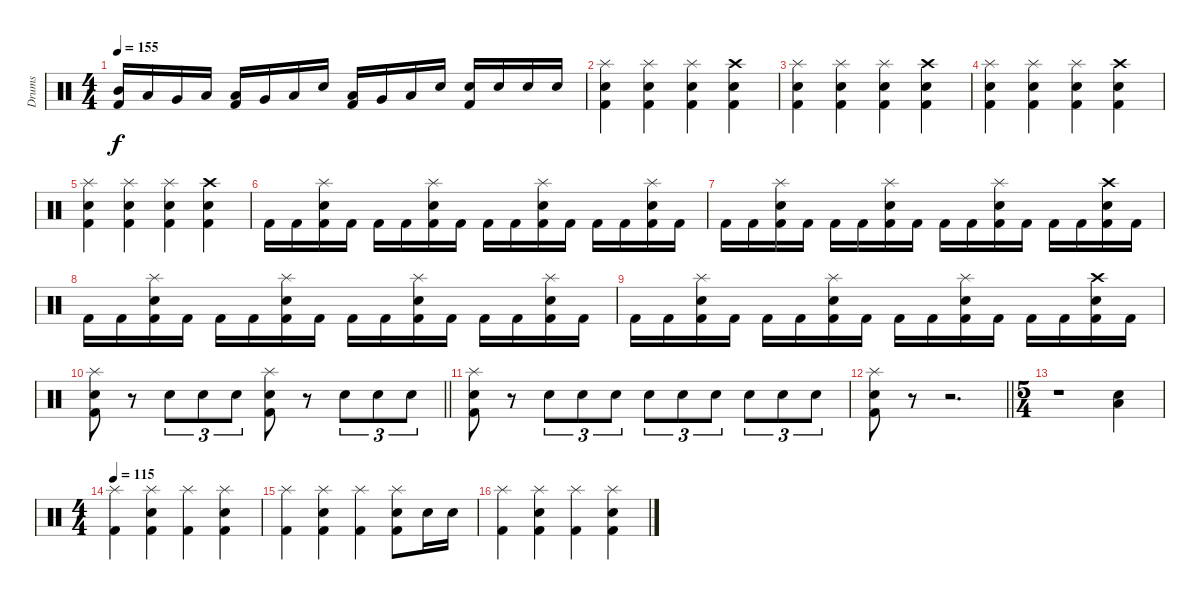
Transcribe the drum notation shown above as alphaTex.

\track ("Drums" "Drums") {instrument percussion}
\staff {score}
\articulation defaults
\ts (4 4)
\tempo 155
\clef neutral
\ks c
("Kick (hit) 2" "Mid Tom (hit)").16{dy f} "Low Tom (hit)".16 "Very Low Tom (hit)".16 "Low Floor Tom (hit)".16 ("Kick (hit) 2" "Low Tom (hit)").16 "Very Low Tom (hit)".16 "Low Floor Tom (hit)".16 "Electric Snare (hit)".16 ("Kick (hit) 2" "Low Tom (hit)").16 "Very Low Tom (hit)".16 "Low Floor Tom (hit)".16 "Electric Snare (hit)".16 ("Kick (hit) 2" "Electric Snare (hit)").16 "Electric Snare (hit)".16 "Electric Snare (hit)".16 "Electric Snare (hit)".16 |
("Kick (hit) 2" "Electric Snare (hit)" "Splash (hit)").4 ("Kick (hit) 2" "Electric Snare (hit)" "Splash (hit)").4 ("Kick (hit) 2" "Electric Snare (hit)" "Splash (hit)").4 ("Kick (hit) 2" "Electric Snare (hit)" "Crash high (hit)").4 |
("Kick (hit) 2" "Electric Snare (hit)" "Splash (hit)").4 ("Kick (hit) 2" "Electric Snare (hit)" "Splash (hit)").4 ("Kick (hit) 2" "Electric Snare (hit)" "Splash (hit)").4 ("Kick (hit) 2" "Electric Snare (hit)" "Crash high (hit)").4 |
("Kick (hit) 2" "Electric Snare (hit)" "Splash (hit)").4 ("Kick (hit) 2" "Electric Snare (hit)" "Splash (hit)").4 ("Kick (hit) 2" "Electric Snare (hit)" "Splash (hit)").4 ("Kick (hit) 2" "Electric Snare (hit)" "Crash high (hit)").4 |
("Kick (hit) 2" "Electric Snare (hit)" "Splash (hit)").4 ("Kick (hit) 2" "Electric Snare (hit)" "Splash (hit)").4 ("Kick (hit) 2" "Electric Snare (hit)" "Splash (hit)").4 ("Kick (hit) 2" "Electric Snare (hit)" "Crash high (hit)").4 |
"Kick (hit) 2".16 "Kick (hit) 2".16 ("Kick (hit) 2" "Electric Snare (hit)" "Splash (hit)").16 "Kick (hit) 2".16 "Kick (hit) 2".16 "Kick (hit) 2".16 ("Kick (hit) 2" "Electric Snare (hit)" "Splash (hit)").16 "Kick (hit) 2".16 "Kick (hit) 2".16 "Kick (hit) 2".16 ("Kick (hit) 2" "Electric Snare (hit)" "Splash (hit)").16 "Kick (hit) 2".16 "Kick (hit) 2".16 "Kick (hit) 2".16 ("Kick (hit) 2" "Electric Snare (hit)" "Splash (hit)").16 "Kick (hit) 2".16 |
"Kick (hit) 2".16 "Kick (hit) 2".16 ("Kick (hit) 2" "Electric Snare (hit)" "Splash (hit)").16 "Kick (hit) 2".16 "Kick (hit) 2".16 "Kick (hit) 2".16 ("Kick (hit) 2" "Electric Snare (hit)" "Splash (hit)").16 "Kick (hit) 2".16 "Kick (hit) 2".16 "Kick (hit) 2".16 ("Kick (hit) 2" "Electric Snare (hit)" "Splash (hit)").16 "Kick (hit) 2".16 "Kick (hit) 2".16 "Kick (hit) 2".16 ("Kick (hit) 2" "Electric Snare (hit)" "Crash high (hit)").16 "Kick (hit) 2".16 |
"Kick (hit) 2".16 "Kick (hit) 2".16 ("Kick (hit) 2" "Electric Snare (hit)" "Splash (hit)").16 "Kick (hit) 2".16 "Kick (hit) 2".16 "Kick (hit) 2".16 ("Kick (hit) 2" "Electric Snare (hit)" "Splash (hit)").16 "Kick (hit) 2".16 "Kick (hit) 2".16 "Kick (hit) 2".16 ("Kick (hit) 2" "Electric Snare (hit)" "Splash (hit)").16 "Kick (hit) 2".16 "Kick (hit) 2".16 "Kick (hit) 2".16 ("Kick (hit) 2" "Electric Snare (hit)" "Splash (hit)").16 "Kick (hit) 2".16 |
"Kick (hit) 2".16 "Kick (hit) 2".16 ("Kick (hit) 2" "Electric Snare (hit)" "Splash (hit)").16 "Kick (hit) 2".16 "Kick (hit) 2".16 "Kick (hit) 2".16 ("Kick (hit) 2" "Electric Snare (hit)" "Splash (hit)").16 "Kick (hit) 2".16 "Kick (hit) 2".16 "Kick (hit) 2".16 ("Kick (hit) 2" "Electric Snare (hit)" "Splash (hit)").16 "Kick (hit) 2".16 "Kick (hit) 2".16 "Kick (hit) 2".16 ("Kick (hit) 2" "Electric Snare (hit)" "Crash high (hit)").16 "Kick (hit) 2".16 |
\barLineRight lightlight
("Kick (hit) 2" "Electric Snare (hit)" "Splash (hit)").8 r.8 "Electric Snare (hit)".8{tu (3 2)} "Electric Snare (hit)".8{tu (3 2)} "Electric Snare (hit)".8{tu (3 2)} ("Kick (hit) 2" "Electric Snare (hit)" "Splash (hit)").8 r.8 "Electric Snare (hit)".8{tu (3 2)} "Electric Snare (hit)".8{tu (3 2)} "Electric Snare (hit)".8{tu (3 2)} |
("Kick (hit) 2" "Electric Snare (hit)" "Splash (hit)").8 r.8 "Electric Snare (hit)".8{tu (3 2)} "Electric Snare (hit)".8{tu (3 2)} "Electric Snare (hit)".8{tu (3 2)} "Electric Snare (hit)".8{tu (3 2)} "Electric Snare (hit)".8{tu (3 2)} "Electric Snare (hit)".8{tu (3 2)} "Electric Snare (hit)".8{tu (3 2)} "Electric Snare (hit)".8{tu (3 2)} "Electric Snare (hit)".8{tu (3 2)} |
\barLineRight lightlight
("Kick (hit) 2" "Electric Snare (hit)" "Splash (hit)").8 r.8 r.2{d} |
\ts (5 4)
r.1 ("Low Tom (hit)" "Electric Snare (hit)").4 |
\ts (4 4)
\tempo 115
("Kick (hit) 2" "Splash (hit)").4 ("Kick (hit) 2" "Splash (hit)" "Electric Snare (hit)").4 ("Kick (hit) 2" "Splash (hit)").4 ("Kick (hit) 2" "Splash (hit)" "Electric Snare (hit)").4 |
("Kick (hit) 2" "Splash (hit)").4 ("Kick (hit) 2" "Splash (hit)" "Electric Snare (hit)").4 ("Kick (hit) 2" "Splash (hit)").4 ("Kick (hit) 2" "Splash (hit)" "Electric Snare (hit)").8 "Electric Snare (hit)".16 "Electric Snare (hit)".16 |
("Kick (hit) 2" "Splash (hit)").4 ("Kick (hit) 2" "Splash (hit)" "Electric Snare (hit)").4 ("Kick (hit) 2" "Splash (hit)").4 ("Kick (hit) 2" "Splash (hit)" "Electric Snare (hit)").4
